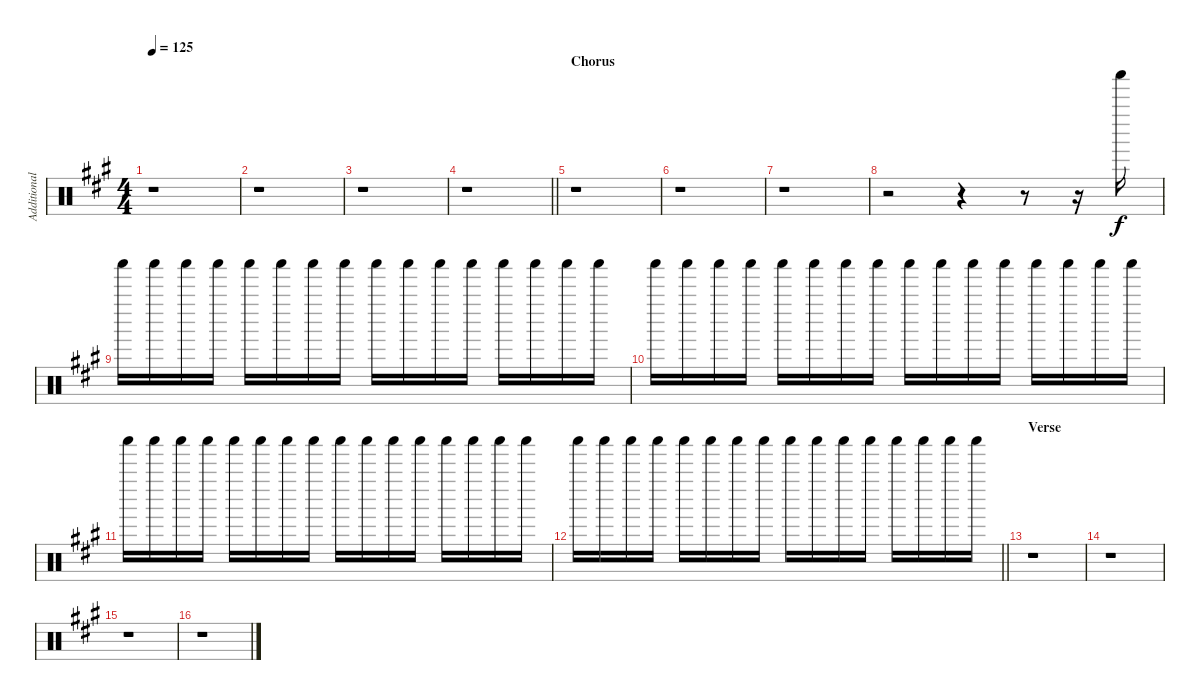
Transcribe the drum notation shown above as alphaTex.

\track ("Additional Percussion I" "Additional") {instrument percussion}
\staff {score}
\articulation defaults
\ts (4 4)
\tempo 125
\clef neutral
\ks a
r.1{dy f} |
r.1 |
r.1 |
\barLineRight lightlight
r.1 |
\section ("" "Chorus")
r.1 |
r.1 |
r.1 |
r.2 r.4 r.8 r.16 "Shaker (hit)".16 |
"Shaker (hit)".16 "Shaker (hit)".16 "Shaker (hit)".16 "Shaker (hit)".16 "Shaker (hit)".16 "Shaker (hit)".16 "Shaker (hit)".16 "Shaker (hit)".16 "Shaker (hit)".16 "Shaker (hit)".16 "Shaker (hit)".16 "Shaker (hit)".16 "Shaker (hit)".16 "Shaker (hit)".16 "Shaker (hit)".16 "Shaker (hit)".16 |
"Shaker (hit)".16 "Shaker (hit)".16 "Shaker (hit)".16 "Shaker (hit)".16 "Shaker (hit)".16 "Shaker (hit)".16 "Shaker (hit)".16 "Shaker (hit)".16 "Shaker (hit)".16 "Shaker (hit)".16 "Shaker (hit)".16 "Shaker (hit)".16 "Shaker (hit)".16 "Shaker (hit)".16 "Shaker (hit)".16 "Shaker (hit)".16 |
"Shaker (hit)".16 "Shaker (hit)".16 "Shaker (hit)".16 "Shaker (hit)".16 "Shaker (hit)".16 "Shaker (hit)".16 "Shaker (hit)".16 "Shaker (hit)".16 "Shaker (hit)".16 "Shaker (hit)".16 "Shaker (hit)".16 "Shaker (hit)".16 "Shaker (hit)".16 "Shaker (hit)".16 "Shaker (hit)".16 "Shaker (hit)".16 |
\barLineRight lightlight "Shaker (hit)".16 "Shaker (hit)".16 "Shaker (hit)".16 "Shaker (hit)".16 "Shaker (hit)".16 "Shaker (hit)".16 "Shaker (hit)".16 "Shaker (hit)".16 "Shaker (hit)".16 "Shaker (hit)".16 "Shaker (hit)".16 "Shaker (hit)".16 "Shaker (hit)".16 "Shaker (hit)".16 "Shaker (hit)".16 "Shaker (hit)".16
|
\section ("" "Verse")
r.1 |
r.1 |
r.1 |
r.1
